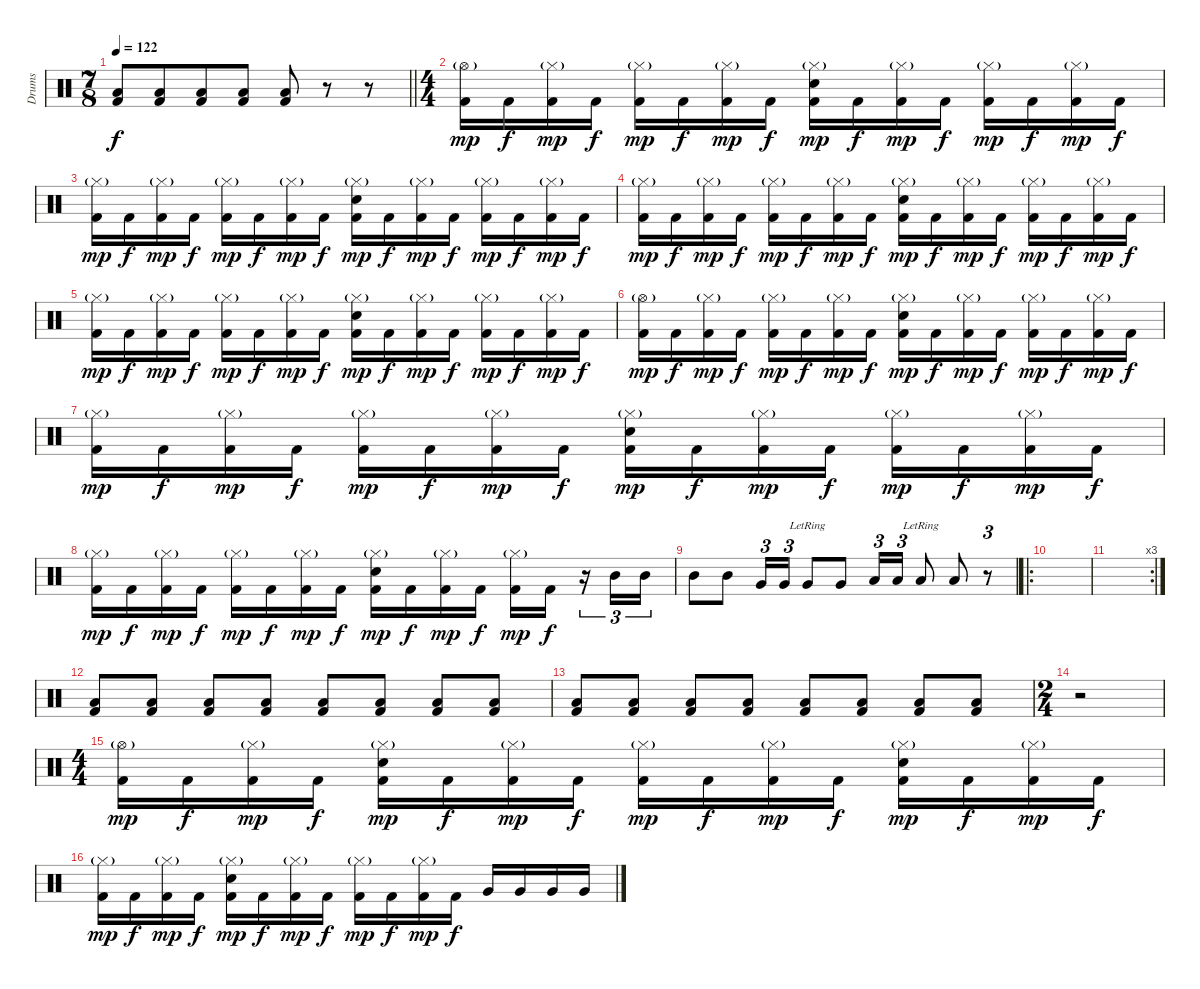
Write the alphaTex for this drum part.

\track ("Drums" "Drums") {instrument percussion}
\staff {score}
\articulation defaults
\ts (7 8)
\tempo 122
\clef neutral
\barLineRight lightlight
\ks c
("Low Floor Tom (hit)" "Kick (hit) 2").8{dy f volume 14} ("Low Floor Tom (hit)" "Kick (hit) 2").8 ("Low Floor Tom (hit)" "Kick (hit) 2").8 ("Low Floor Tom (hit)" "Kick (hit) 2").8 ("Low Floor Tom (hit)" "Kick (hit) 2").8{volume 16} r.8 r.8 |
\ts (4 4)
("Hi-Hat (open)"{g} "Kick (hit) 2").16{dy mp} "Kick (hit) 2".16{dy f} ("Hi-Hat (closed)"{g} "Kick (hit) 2").16{dy mp} "Kick (hit) 2".16{dy f} ("Hi-Hat (closed)"{g} "Kick (hit) 2").16{dy mp} "Kick (hit) 2".16{dy f} ("Hi-Hat (closed)"{g} "Kick (hit) 2").16{dy mp} "Kick (hit) 2".16{dy f} ("Hi-Hat (closed)"{g} "Electric Snare (hit)" "Kick (hit) 2").16{dy mp} "Kick (hit) 2".16{dy f} ("Hi-Hat (closed)"{g} "Kick (hit) 2").16{dy mp} "Kick (hit) 2".16{dy f} ("Hi-Hat (closed)"{g} "Kick (hit) 2").16{dy mp} "Kick (hit) 2".16{dy f} ("Hi-Hat (closed)"{g} "Kick (hit) 2").16{dy mp} "Kick (hit) 2".16{dy f} |
("Hi-Hat (closed)"{g} "Kick (hit) 2").16{dy mp} "Kick (hit) 2".16{dy f} ("Hi-Hat (closed)"{g} "Kick (hit) 2").16{dy mp} "Kick (hit) 2".16{dy f} ("Hi-Hat (closed)"{g} "Kick (hit) 2").16{dy mp} "Kick (hit) 2".16{dy f} ("Hi-Hat (closed)"{g} "Kick (hit) 2").16{dy mp} "Kick (hit) 2".16{dy f} ("Hi-Hat (closed)"{g} "Electric Snare (hit)" "Kick (hit) 2").16{dy mp} "Kick (hit) 2".16{dy f} ("Hi-Hat (closed)"{g} "Kick (hit) 2").16{dy mp} "Kick (hit) 2".16{dy f} ("Hi-Hat (closed)"{g} "Kick (hit) 2").16{dy mp} "Kick (hit) 2".16{dy f} ("Hi-Hat (closed)"{g} "Kick (hit) 2").16{dy mp} "Kick (hit) 2".16{dy f} |
("Hi-Hat (closed)"{g} "Kick (hit) 2").16{dy mp} "Kick (hit) 2".16{dy f} ("Hi-Hat (closed)"{g} "Kick (hit) 2").16{dy mp} "Kick (hit) 2".16{dy f} ("Hi-Hat (closed)"{g} "Kick (hit) 2").16{dy mp} "Kick (hit) 2".16{dy f} ("Hi-Hat (closed)"{g} "Kick (hit) 2").16{dy mp} "Kick (hit) 2".16{dy f} ("Hi-Hat (closed)"{g} "Electric Snare (hit)" "Kick (hit) 2").16{dy mp} "Kick (hit) 2".16{dy f} ("Hi-Hat (closed)"{g} "Kick (hit) 2").16{dy mp} "Kick (hit) 2".16{dy f} ("Hi-Hat (closed)"{g} "Kick (hit) 2").16{dy mp} "Kick (hit) 2".16{dy f} ("Hi-Hat (closed)"{g} "Kick (hit) 2").16{dy mp} "Kick (hit) 2".16{dy f} |
("Hi-Hat (closed)"{g} "Kick (hit) 2").16{dy mp} "Kick (hit) 2".16{dy f} ("Hi-Hat (closed)"{g} "Kick (hit) 2").16{dy mp} "Kick (hit) 2".16{dy f} ("Hi-Hat (closed)"{g} "Kick (hit) 2").16{dy mp} "Kick (hit) 2".16{dy f} ("Hi-Hat (closed)"{g} "Kick (hit) 2").16{dy mp} "Kick (hit) 2".16{dy f} ("Hi-Hat (closed)"{g} "Electric Snare (hit)" "Kick (hit) 2").16{dy mp} "Kick (hit) 2".16{dy f} ("Hi-Hat (closed)"{g} "Kick (hit) 2").16{dy mp} "Kick (hit) 2".16{dy f} ("Hi-Hat (closed)"{g} "Kick (hit) 2").16{dy mp} "Kick (hit) 2".16{dy f} ("Hi-Hat (closed)"{g} "Kick (hit) 2").16{dy mp} "Kick (hit) 2".16{dy f} |
("Hi-Hat (open)"{g} "Kick (hit) 2").16{dy mp} "Kick (hit) 2".16{dy f} ("Hi-Hat (closed)"{g} "Kick (hit) 2").16{dy mp} "Kick (hit) 2".16{dy f} ("Hi-Hat (closed)"{g} "Kick (hit) 2").16{dy mp} "Kick (hit) 2".16{dy f} ("Hi-Hat (closed)"{g} "Kick (hit) 2").16{dy mp} "Kick (hit) 2".16{dy f} ("Hi-Hat (closed)"{g} "Electric Snare (hit)" "Kick (hit) 2").16{dy mp} "Kick (hit) 2".16{dy f} ("Hi-Hat (closed)"{g} "Kick (hit) 2").16{dy mp} "Kick (hit) 2".16{dy f} ("Hi-Hat (closed)"{g} "Kick (hit) 2").16{dy mp} "Kick (hit) 2".16{dy f} ("Hi-Hat (closed)"{g} "Kick (hit) 2").16{dy mp} "Kick (hit) 2".16{dy f} |
("Hi-Hat (closed)"{g} "Kick (hit) 2").16{dy mp} "Kick (hit) 2".16{dy f} ("Hi-Hat (closed)"{g} "Kick (hit) 2").16{dy mp} "Kick (hit) 2".16{dy f} ("Hi-Hat (closed)"{g} "Kick (hit) 2").16{dy mp} "Kick (hit) 2".16{dy f} ("Hi-Hat (closed)"{g} "Kick (hit) 2").16{dy mp} "Kick (hit) 2".16{dy f} ("Hi-Hat (closed)"{g} "Electric Snare (hit)" "Kick (hit) 2").16{dy mp} "Kick (hit) 2".16{dy f} ("Hi-Hat (closed)"{g} "Kick (hit) 2").16{dy mp} "Kick (hit) 2".16{dy f} ("Hi-Hat (closed)"{g} "Kick (hit) 2").16{dy mp} "Kick (hit) 2".16{dy f} ("Hi-Hat (closed)"{g} "Kick (hit) 2").16{dy mp} "Kick (hit) 2".16{dy f} |
("Hi-Hat (closed)"{g} "Kick (hit) 2").16{dy mp} "Kick (hit) 2".16{dy f} ("Hi-Hat (closed)"{g} "Kick (hit) 2").16{dy mp} "Kick (hit) 2".16{dy f} ("Hi-Hat (closed)"{g} "Kick (hit) 2").16{dy mp} "Kick (hit) 2".16{dy f} ("Hi-Hat (closed)"{g} "Kick (hit) 2").16{dy mp} "Kick (hit) 2".16{dy f} ("Hi-Hat (closed)"{g} "Electric Snare (hit)" "Kick (hit) 2").16{dy mp} "Kick (hit) 2".16{dy f} ("Hi-Hat (closed)"{g} "Kick (hit) 2").16{dy mp} "Kick (hit) 2".16{dy f} ("Hi-Hat (closed)"{g} "Kick (hit) 2").16{dy mp} "Kick (hit) 2".16{dy f} r.16{tu (3 2)} "Mid Tom (hit)".16{tu (3 2)} "Mid Tom (hit)".16{tu (3 2)} |
"Mid Tom (hit)".8 "Mid Tom (hit)".8 "Very Low Tom (hit)".16{tu (3 2)} "Very Low Tom (hit)".16{tu (3 2)} "Very Low Tom (hit)"{lr}.8 "Very Low Tom (hit)".8 "Low Floor Tom (hit)".16{tu (3 2)} "Low Floor Tom (hit)".16{tu (3 2)} "Low Floor Tom (hit)"{lr}.8 "Low Floor Tom (hit)".8 r.8{tu (3 2)} |
\ro
|
\rc 3
|
("Low Floor Tom (hit)" "Kick (hit) 2").8{volume 8} ("Low Floor Tom (hit)" "Kick (hit) 2").8 ("Low Floor Tom (hit)" "Kick (hit) 2").8 ("Low Floor Tom (hit)" "Kick (hit) 2").8 ("Low Floor Tom (hit)" "Kick (hit) 2").8{volume 10} ("Low Floor Tom (hit)" "Kick (hit) 2").8 ("Low Floor Tom (hit)" "Kick (hit) 2").8 ("Low Floor Tom (hit)" "Kick (hit) 2").8 |
("Low Floor Tom (hit)" "Kick (hit) 2").8{volume 12} ("Low Floor Tom (hit)" "Kick (hit) 2").8 ("Low Floor Tom (hit)" "Kick (hit) 2").8 ("Low Floor Tom (hit)" "Kick (hit) 2").8 ("Low Floor Tom (hit)" "Kick (hit) 2").8 ("Low Floor Tom (hit)" "Kick (hit) 2").8 ("Low Floor Tom (hit)" "Kick (hit) 2").8 ("Low Floor Tom (hit)" "Kick (hit) 2").8{volume 16} |
\ts (2 4)
r.2 |
\ts (4 4)
("Hi-Hat (open)"{g} "Kick (hit) 2").16{dy mp} "Kick (hit) 2".16{dy f} ("Hi-Hat (closed)"{g} "Kick (hit) 2").16{dy mp} "Kick (hit) 2".16{dy f} ("Hi-Hat (closed)"{g} "Electric Snare (hit)" "Kick (hit) 2").16{dy mp} "Kick (hit) 2".16{dy f} ("Hi-Hat (closed)"{g} "Kick (hit) 2").16{dy mp} "Kick (hit) 2".16{dy f} ("Hi-Hat (closed)"{g} "Kick (hit) 2").16{dy mp} "Kick (hit) 2".16{dy f} ("Hi-Hat (closed)"{g} "Kick (hit) 2").16{dy mp} "Kick (hit) 2".16{dy f} ("Hi-Hat (closed)"{g} "Electric Snare (hit)" "Kick (hit) 2").16{dy mp} "Kick (hit) 2".16{dy f} ("Hi-Hat (closed)"{g} "Kick (hit) 2").16{dy mp} "Kick (hit) 2".16{dy f} |
("Hi-Hat (closed)"{g} "Kick (hit) 2").16{dy mp} "Kick (hit) 2".16{dy f} ("Hi-Hat (closed)"{g} "Kick (hit) 2").16{dy mp} "Kick (hit) 2".16{dy f} ("Hi-Hat (closed)"{g} "Electric Snare (hit)" "Kick (hit) 2").16{dy mp} "Kick (hit) 2".16{dy f} ("Hi-Hat (closed)"{g} "Kick (hit) 2").16{dy mp} "Kick (hit) 2".16{dy f} ("Hi-Hat (closed)"{g} "Kick (hit) 2").16{dy mp} "Kick (hit) 2".16{dy f} ("Hi-Hat (closed)"{g} "Kick (hit) 2").16{dy mp} "Kick (hit) 2".16{dy f} "Very Low Tom (hit)".16 "Very Low Tom (hit)".16 "Very Low Tom (hit)".16 "Very Low Tom (hit)".16
